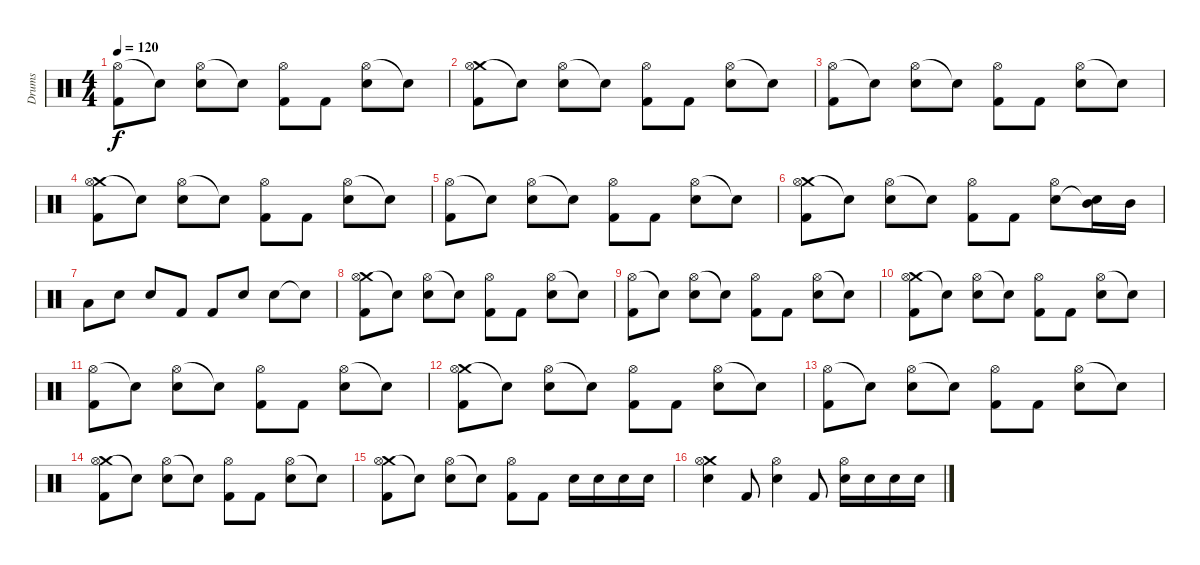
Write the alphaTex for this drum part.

\track ("Drums" "Drums") {instrument percussion}
\staff {score}
\articulation defaults
\ts (4 4)
\tempo 120
\clef neutral
\ks c
("Hi-Hat (open)" "Kick (hit) 2").8{dy f} "Snare (hit)"{t}.8 ("Hi-Hat (open)" "Electric Snare (hit)").8 "Snare (hit)"{t}.8 ("Hi-Hat (open)" "Kick (hit) 2").8 "Kick (hit) 2".8 ("Hi-Hat (open)" "Electric Snare (hit)").8 "Snare (hit)"{t}.8 |
("Crash medium (hit)" "Hi-Hat (open)" "Kick (hit) 2").8 "Snare (hit)"{t}.8 ("Hi-Hat (open)" "Electric Snare (hit)").8 "Snare (hit)"{t}.8 ("Hi-Hat (open)" "Kick (hit) 2").8 "Kick (hit) 2".8 ("Hi-Hat (open)" "Electric Snare (hit)").8 "Snare (hit)"{t}.8 |
("Hi-Hat (open)" "Kick (hit) 2").8 "Snare (hit)"{t}.8 ("Hi-Hat (open)" "Electric Snare (hit)").8 "Snare (hit)"{t}.8 ("Hi-Hat (open)" "Kick (hit) 2").8 "Kick (hit) 2".8 ("Hi-Hat (open)" "Electric Snare (hit)").8 "Snare (hit)"{t}.8 |
("Crash medium (hit)" "Hi-Hat (open)" "Kick (hit) 2").8 "Snare (hit)"{t}.8 ("Hi-Hat (open)" "Electric Snare (hit)").8 "Snare (hit)"{t}.8 ("Hi-Hat (open)" "Kick (hit) 2").8 "Kick (hit) 2".8 ("Hi-Hat (open)" "Electric Snare (hit)").8 "Snare (hit)"{t}.8 |
("Hi-Hat (open)" "Kick (hit) 2").8 "Snare (hit)"{t}.8 ("Hi-Hat (open)" "Electric Snare (hit)").8 "Snare (hit)"{t}.8 ("Hi-Hat (open)" "Kick (hit) 2").8 "Kick (hit) 2".8 ("Hi-Hat (open)" "Electric Snare (hit)").8 "Snare (hit)"{t}.8 |
("Crash medium (hit)" "Hi-Hat (open)" "Kick (hit) 2").8 "Snare (hit)"{t}.8 ("Hi-Hat (open)" "Electric Snare (hit)").8 "Snare (hit)"{t}.8 ("Hi-Hat (open)" "Kick (hit) 2").8 "Kick (hit) 2".8 ("Hi-Hat (open)" "Electric Snare (hit)").8 ("Mid Tom (hit)" "Snare (hit)"{t}).16 "Mid Tom (hit)".16 |
"Low Tom (hit)".8 "Electric Snare (hit)".8 "Electric Snare (hit)".8 "Kick (hit) 2".8 "Kick (hit) 2".8 "Electric Snare (hit)".8 "Electric Snare (hit)".8 "Snare (hit)"{t}.8 |
("Crash medium (hit)" "Hi-Hat (open)" "Kick (hit) 2").8 "Snare (hit)"{t}.8 ("Hi-Hat (open)" "Electric Snare (hit)").8 "Snare (hit)"{t}.8 ("Hi-Hat (open)" "Kick (hit) 2").8 "Kick (hit) 2".8 ("Hi-Hat (open)" "Electric Snare (hit)").8 "Snare (hit)"{t}.8 |
("Hi-Hat (open)" "Kick (hit) 2").8 "Snare (hit)"{t}.8 ("Hi-Hat (open)" "Electric Snare (hit)").8 "Snare (hit)"{t}.8 ("Hi-Hat (open)" "Kick (hit) 2").8 "Kick (hit) 2".8 ("Hi-Hat (open)" "Electric Snare (hit)").8 "Snare (hit)"{t}.8 |
("Crash medium (hit)" "Hi-Hat (open)" "Kick (hit) 2").8 "Snare (hit)"{t}.8 ("Hi-Hat (open)" "Electric Snare (hit)").8 "Snare (hit)"{t}.8 ("Hi-Hat (open)" "Kick (hit) 2").8 "Kick (hit) 2".8 ("Hi-Hat (open)" "Electric Snare (hit)").8 "Snare (hit)"{t}.8 |
("Hi-Hat (open)" "Kick (hit) 2").8 "Snare (hit)"{t}.8 ("Hi-Hat (open)" "Electric Snare (hit)").8 "Snare (hit)"{t}.8 ("Hi-Hat (open)" "Kick (hit) 2").8 "Kick (hit) 2".8 ("Hi-Hat (open)" "Electric Snare (hit)").8 "Snare (hit)"{t}.8 |
("Crash medium (hit)" "Hi-Hat (open)" "Kick (hit) 2").8 "Snare (hit)"{t}.8 ("Hi-Hat (open)" "Electric Snare (hit)").8 "Snare (hit)"{t}.8 ("Hi-Hat (open)" "Kick (hit) 2").8 "Kick (hit) 2".8 ("Hi-Hat (open)" "Electric Snare (hit)").8 "Snare (hit)"{t}.8 |
("Hi-Hat (open)" "Kick (hit) 2").8 "Snare (hit)"{t}.8 ("Hi-Hat (open)" "Electric Snare (hit)").8 "Snare (hit)"{t}.8 ("Hi-Hat (open)" "Kick (hit) 2").8 "Kick (hit) 2".8 ("Hi-Hat (open)" "Electric Snare (hit)").8 "Snare (hit)"{t}.8 |
("Crash medium (hit)" "Hi-Hat (open)" "Kick (hit) 2").8 "Snare (hit)"{t}.8 ("Hi-Hat (open)" "Electric Snare (hit)").8 "Snare (hit)"{t}.8 ("Hi-Hat (open)" "Kick (hit) 2").8 "Kick (hit) 2".8 ("Hi-Hat (open)" "Electric Snare (hit)").8 "Snare (hit)"{t}.8 |
("Crash medium (hit)" "Hi-Hat (open)" "Kick (hit) 2").8 "Snare (hit)"{t}.8 ("Hi-Hat (open)" "Electric Snare (hit)").8 "Snare (hit)"{t}.8 ("Hi-Hat (open)" "Kick (hit) 2").8 "Kick (hit) 2".8 "Electric Snare (hit)".16 "Electric Snare (hit)".16 "Electric Snare (hit)".16 "Electric Snare (hit)".16 |
("Crash medium (hit)" "Hi-Hat (open)" "Electric Snare (hit)").4 "Kick (hit) 2".8 ("Hi-Hat (open)" "Electric Snare (hit)").4 "Kick (hit) 2".8 ("Hi-Hat (open)" "Electric Snare (hit)").16 "Electric Snare (hit)".16 "Electric Snare (hit)".16 "Electric Snare (hit)".16
